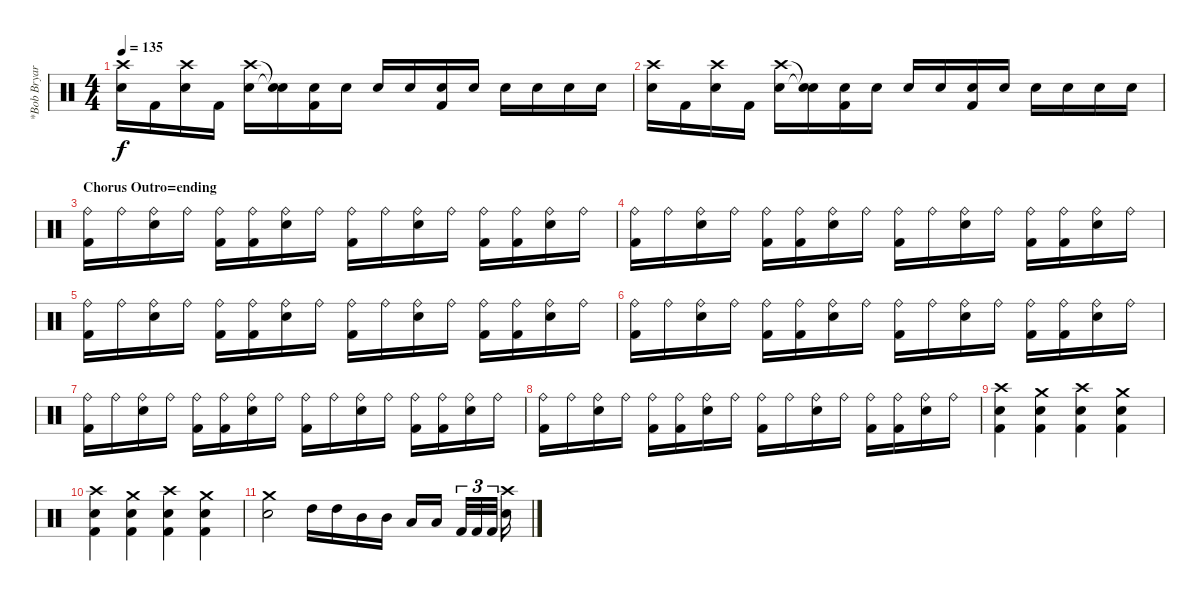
\track ("*Bob Bryar" "*Bob Bryar") {instrument percussion}
\staff {score}
\articulation defaults
\ts (4 4)
\tempo 135
\clef neutral
\ks c
("Crash high (hit)" "Electric Snare (hit)").16{dy f} "Kick (hit) 2".16 ("Crash high (hit)" "Electric Snare (hit)").16 "Kick (hit) 2".16 ("Crash high (hit)" "Electric Snare (hit)").16 ("Snare (hit)"{t} "Snare (hit)"{t}).16 ("Electric Snare (hit)" "Kick (hit) 2").16 "Electric Snare (hit)".16 "Electric Snare (hit)".16 "Electric Snare (hit)".16 ("Electric Snare (hit)" "Kick (hit) 2").16 "Electric Snare (hit)".16 "Electric Snare (hit)".16 "Electric Snare (hit)".16 "Electric Snare (hit)".16 "Electric Snare (hit)".16 |
("Crash high (hit)" "Electric Snare (hit)").16 "Kick (hit) 2".16 ("Crash high (hit)" "Electric Snare (hit)").16 "Kick (hit) 2".16 ("Crash high (hit)" "Electric Snare (hit)").16 ("Snare (hit)"{t} "Snare (hit)"{t}).16 ("Electric Snare (hit)" "Kick (hit) 2").16 "Electric Snare (hit)".16 "Electric Snare (hit)".16 "Electric Snare (hit)".16 ("Electric Snare (hit)" "Kick (hit) 2").16 "Electric Snare (hit)".16 "Electric Snare (hit)".16 "Electric Snare (hit)".16 "Electric Snare (hit)".16 "Electric Snare (hit)".16 |
\section ("" "Chorus Outro=ending")
("Ride (bell)" "Kick (hit) 2").16 "Ride (bell)".16 ("Ride (bell)" "Electric Snare (hit)").16 "Ride (bell)".16 ("Ride (bell)" "Kick (hit) 2").16 ("Ride (bell)" "Kick (hit) 2").16 ("Ride (bell)" "Electric Snare (hit)").16 "Ride (bell)".16 ("Ride (bell)" "Kick (hit) 2").16 "Ride (bell)".16 ("Ride (bell)" "Electric Snare (hit)").16 "Ride (bell)".16 ("Ride (bell)" "Kick (hit) 2").16 ("Ride (bell)" "Kick (hit) 2").16 ("Ride (bell)" "Electric Snare (hit)").16 "Ride (bell)".16 |
("Ride (bell)" "Kick (hit) 2").16 "Ride (bell)".16 ("Ride (bell)" "Electric Snare (hit)").16 "Ride (bell)".16 ("Ride (bell)" "Kick (hit) 2").16 ("Ride (bell)" "Kick (hit) 2").16 ("Ride (bell)" "Electric Snare (hit)").16 "Ride (bell)".16 ("Ride (bell)" "Kick (hit) 2").16 "Ride (bell)".16 ("Ride (bell)" "Electric Snare (hit)").16 "Ride (bell)".16 ("Ride (bell)" "Kick (hit) 2").16 ("Ride (bell)" "Kick (hit) 2").16 ("Ride (bell)" "Electric Snare (hit)").16 "Ride (bell)".16 |
("Ride (bell)" "Kick (hit) 2").16 "Ride (bell)".16 ("Ride (bell)" "Electric Snare (hit)").16 "Ride (bell)".16 ("Ride (bell)" "Kick (hit) 2").16 ("Ride (bell)" "Kick (hit) 2").16 ("Ride (bell)" "Electric Snare (hit)").16 "Ride (bell)".16 ("Ride (bell)" "Kick (hit) 2").16 "Ride (bell)".16 ("Ride (bell)" "Electric Snare (hit)").16 "Ride (bell)".16 ("Ride (bell)" "Kick (hit) 2").16 ("Ride (bell)" "Kick (hit) 2").16 ("Ride (bell)" "Electric Snare (hit)").16 "Ride (bell)".16 |
("Ride (bell)" "Kick (hit) 2").16 "Ride (bell)".16 ("Ride (bell)" "Electric Snare (hit)").16 "Ride (bell)".16 ("Ride (bell)" "Kick (hit) 2").16 ("Ride (bell)" "Kick (hit) 2").16 ("Ride (bell)" "Electric Snare (hit)").16 "Ride (bell)".16 ("Ride (bell)" "Kick (hit) 2").16 "Ride (bell)".16 ("Ride (bell)" "Electric Snare (hit)").16 "Ride (bell)".16 ("Ride (bell)" "Kick (hit) 2").16 ("Ride (bell)" "Kick (hit) 2").16 ("Ride (bell)" "Electric Snare (hit)").16 "Ride (bell)".16 |
("Ride (bell)" "Kick (hit) 2").16 "Ride (bell)".16 ("Ride (bell)" "Electric Snare (hit)").16 "Ride (bell)".16 ("Ride (bell)" "Kick (hit) 2").16 ("Ride (bell)" "Kick (hit) 2").16 ("Ride (bell)" "Electric Snare (hit)").16 "Ride (bell)".16 ("Ride (bell)" "Kick (hit) 2").16 "Ride (bell)".16 ("Ride (bell)" "Electric Snare (hit)").16 "Ride (bell)".16 ("Ride (bell)" "Kick (hit) 2").16 ("Ride (bell)" "Kick (hit) 2").16 ("Ride (bell)" "Electric Snare (hit)").16 "Ride (bell)".16 |
("Ride (bell)" "Kick (hit) 2").16 "Ride (bell)".16 ("Ride (bell)" "Electric Snare (hit)").16 "Ride (bell)".16 ("Ride (bell)" "Kick (hit) 2").16 ("Ride (bell)" "Kick (hit) 2").16 ("Ride (bell)" "Electric Snare (hit)").16 "Ride (bell)".16 ("Ride (bell)" "Kick (hit) 2").16 "Ride (bell)".16 ("Ride (bell)" "Electric Snare (hit)").16 "Ride (bell)".16 ("Ride (bell)" "Kick (hit) 2").16 ("Ride (bell)" "Kick (hit) 2").16 ("Ride (bell)" "Electric Snare (hit)").16 "Ride (bell)".16 |
("Crash high (hit)" "Electric Snare (hit)" "Kick (hit) 2").4 ("Crash medium (hit)" "Electric Snare (hit)" "Kick (hit) 2").4 ("Crash high (hit)" "Electric Snare (hit)" "Kick (hit) 2").4 ("Crash medium (hit)" "Electric Snare (hit)" "Kick (hit) 2").4 |
("Crash high (hit)" "Electric Snare (hit)" "Kick (hit) 2").4 ("Crash medium (hit)" "Electric Snare (hit)" "Kick (hit) 2").4 ("Crash high (hit)" "Electric Snare (hit)" "Kick (hit) 2").4 ("Crash medium (hit)" "Electric Snare (hit)" "Kick (hit) 2").4 |
("Crash medium (hit)" "Electric Snare (hit)").2 "High Tom (hit)".16 "High Tom (hit)".16 "Mid Tom (hit)".16 "Mid Tom (hit)".16 "Low Tom (hit)".16 "Low Tom (hit)".16 "Kick (hit) 2".32{tu (3 2)} "Kick (hit) 2".32{tu (3 2)} "Kick (hit) 2".32{tu (3 2)} ("Crash high (hit)" "Electric Snare (hit)").16
